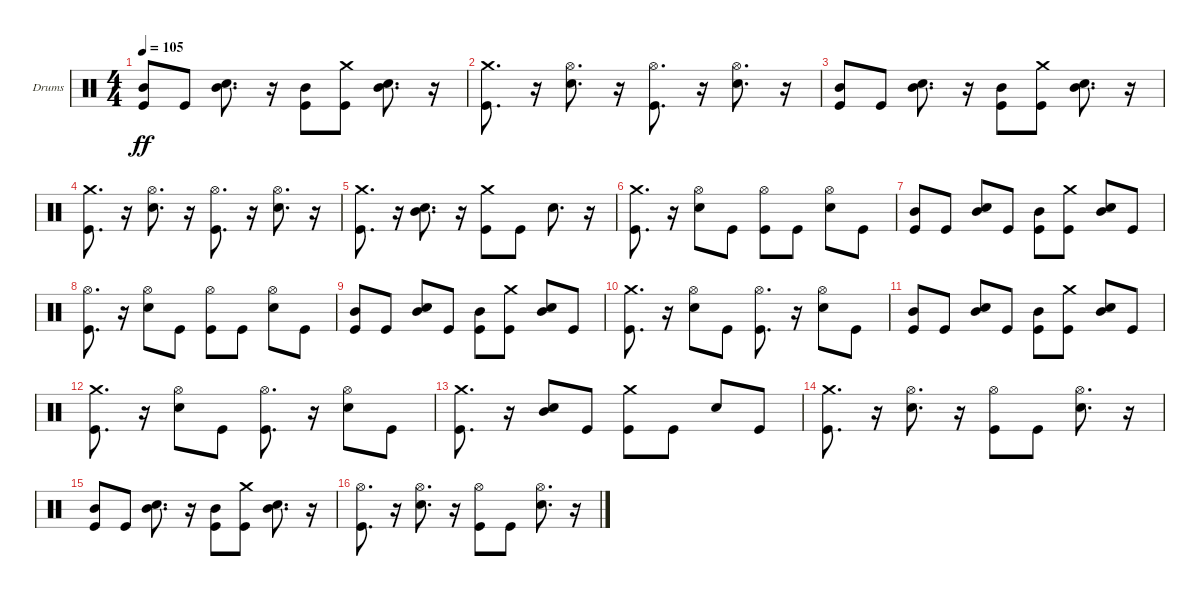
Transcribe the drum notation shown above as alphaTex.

\defaultSystemsLayout 4
\bracketExtendMode groupsimilarinstruments
\firstSystemTrackNameOrientation horizontal
\otherSystemsTrackNameOrientation horizontal
\track ("Drumkit" "Drums") {instrument percussion}
\staff {score}
\articulation defaults
\ts (4 4)
\tempo 105
\clef neutral
\ks c
("Kick (hit)" "Mid Tom (hit)").8{dy ff} "Kick (hit)".8 ("Snare (hit) 2" "Mid Tom (hit)").8{d} r.16 ("Kick (hit)" "Mid Tom (hit)").8 ("Kick (hit)" "Crash medium (hit)").8 ("Snare (hit) 2" "Mid Tom (hit)").8{d} r.16 |
("Kick (hit)" "Crash medium (hit)").8{d} r.16 ("Snare (hit) 2" "Hi-Hat (open)").8{d} r.16 ("Kick (hit)" "Hi-Hat (open)").8{d} r.16 ("Snare (hit) 2" "Hi-Hat (open)").8{d} r.16 |
("Kick (hit)" "Mid Tom (hit)").8 "Kick (hit)".8 ("Snare (hit) 2" "Mid Tom (hit)").8{d} r.16 ("Kick (hit)" "Mid Tom (hit)").8 ("Kick (hit)" "Crash medium (hit)").8 ("Snare (hit) 2" "Mid Tom (hit)").8{d} r.16 |
("Kick (hit)" "Crash medium (hit)").8{d} r.16 ("Snare (hit) 2" "Hi-Hat (open)").8{d} r.16 ("Hi-Hat (open)" "Kick (hit)").8{d} r.16 ("Hi-Hat (open)" "Snare (hit) 2").8{d} r.16 |
("Kick (hit)" "Crash medium (hit)").8{d} r.16 ("Snare (hit) 2" "Mid Tom (hit)").8{d} r.16 ("Kick (hit)" "Crash medium (hit)").8 "Kick (hit)".8 "Snare (hit) 2".8{d} r.16 |
("Kick (hit)" "Crash medium (hit)").8{d} r.16 ("Snare (hit) 2" "Hi-Hat (open)").8 "Kick (hit)".8 ("Kick (hit)" "Hi-Hat (open)").8 "Kick (hit)".8 ("Snare (hit) 2" "Hi-Hat (open)").8 "Kick (hit)".8 |
("Kick (hit)" "Mid Tom (hit)").8 "Kick (hit)".8 ("Snare (hit) 2" "Mid Tom (hit)").8 "Kick (hit)".8 ("Kick (hit)" "Mid Tom (hit)").8 ("Kick (hit)" "Crash medium (hit)").8 ("Snare (hit) 2" "Mid Tom (hit)").8 "Kick (hit)".8 |
("Kick (hit)" "Hi-Hat (open)").8{d} r.16 ("Snare (hit) 2" "Hi-Hat (open)").8 "Kick (hit)".8 ("Kick (hit)" "Hi-Hat (open)").8 "Kick (hit)".8 ("Snare (hit) 2" "Hi-Hat (open)").8 "Kick (hit)".8 |
("Kick (hit)" "Mid Tom (hit)").8 "Kick (hit)".8 ("Snare (hit) 2" "Mid Tom (hit)").8 "Kick (hit)".8 ("Kick (hit)" "Mid Tom (hit)").8 ("Kick (hit)" "Crash medium (hit)").8 ("Snare (hit) 2" "Mid Tom (hit)").8 "Kick (hit)".8 |
("Kick (hit)" "Crash medium (hit)").8{d} r.16 ("Snare (hit) 2" "Hi-Hat (open)").8 "Kick (hit)".8 ("Kick (hit)" "Hi-Hat (open)").8{d} r.16 ("Snare (hit) 2" "Hi-Hat (open)").8 "Kick (hit)".8 |
("Kick (hit)" "Mid Tom (hit)").8 "Kick (hit)".8 ("Snare (hit) 2" "Mid Tom (hit)").8 "Kick (hit)".8 ("Kick (hit)" "Mid Tom (hit)").8 ("Kick (hit)" "Crash medium (hit)").8 ("Snare (hit) 2" "Mid Tom (hit)").8 "Kick (hit)".8 |
("Kick (hit)" "Crash medium (hit)").8{d} r.16 ("Snare (hit) 2" "Hi-Hat (open)").8 "Kick (hit)".8 ("Kick (hit)" "Hi-Hat (open)").8{d} r.16 ("Snare (hit) 2" "Hi-Hat (open)").8 "Kick (hit)".8 |
("Kick (hit)" "Crash medium (hit)").8{d} r.16 ("Snare (hit) 2" "Mid Tom (hit)").8 "Kick (hit)".8 ("Kick (hit)" "Crash medium (hit)").8 "Kick (hit)".8 "Snare (hit) 2".8 "Kick (hit)".8 |
("Kick (hit)" "Crash medium (hit)").8{d} r.16 ("Snare (hit) 2" "Hi-Hat (open)").8{d} r.16 ("Kick (hit)" "Hi-Hat (open)").8 "Kick (hit)".8 ("Snare (hit) 2" "Hi-Hat (open)").8{d} r.16 |
("Kick (hit)" "Mid Tom (hit)").8 "Kick (hit)".8 ("Snare (hit) 2" "Mid Tom (hit)").8{d} r.16 ("Kick (hit)" "Mid Tom (hit)").8 ("Kick (hit)" "Crash medium (hit)").8 ("Snare (hit) 2" "Mid Tom (hit)").8{d} r.16 |
("Kick (hit)" "Hi-Hat (open)").8{d} r.16 ("Snare (hit) 2" "Hi-Hat (open)").8{d} r.16 ("Kick (hit)" "Hi-Hat (open)").8 "Kick (hit)".8 ("Snare (hit) 2" "Hi-Hat (open)").8{d} r.16
